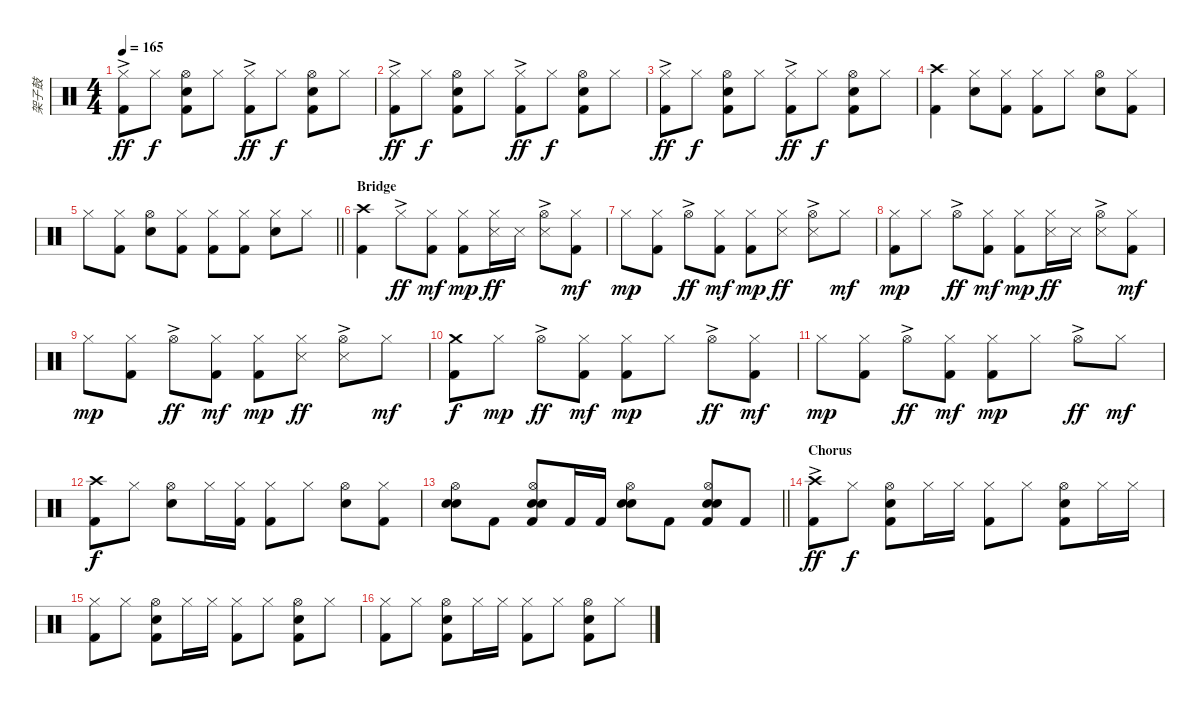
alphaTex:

\track ("架子鼓" "架子鼓") {instrument percussion}
\staff {score}
\articulation defaults
\ts (4 4)
\tempo 165
\clef neutral
\ks c
("Hi-Hat (closed)"{ac} "Kick (hit) 2").8{dy ff} "Hi-Hat (closed)".8{dy f} ("Hi-Hat (open)" "Electric Snare (hit)" "Kick (hit) 2").8 "Hi-Hat (closed)".8 ("Hi-Hat (closed)"{ac} "Kick (hit) 2").8{dy ff} "Hi-Hat (closed)".8{dy f} ("Hi-Hat (open)" "Electric Snare (hit)" "Kick (hit) 2").8 "Hi-Hat (closed)".8 |
("Hi-Hat (closed)"{ac} "Kick (hit) 2").8{dy ff} "Hi-Hat (closed)".8{dy f} ("Hi-Hat (open)" "Electric Snare (hit)" "Kick (hit) 2").8 "Hi-Hat (closed)".8 ("Hi-Hat (closed)"{ac} "Kick (hit) 2").8{dy ff} "Hi-Hat (closed)".8{dy f} ("Hi-Hat (open)" "Electric Snare (hit)" "Kick (hit) 2").8 "Hi-Hat (closed)".8 |
("Hi-Hat (closed)"{ac} "Kick (hit) 2").8{dy ff} "Hi-Hat (closed)".8{dy f} ("Hi-Hat (open)" "Electric Snare (hit)" "Kick (hit) 2").8 "Hi-Hat (closed)".8 ("Hi-Hat (closed)"{ac} "Kick (hit) 2").8{dy ff} "Hi-Hat (closed)".8{dy f} ("Hi-Hat (open)" "Electric Snare (hit)" "Kick (hit) 2").8 "Hi-Hat (closed)".8 |
("Crash high (hit)" "Kick (hit) 2").4 ("Hi-Hat (closed)" "Electric Snare (hit)").8 ("Hi-Hat (closed)" "Kick (hit) 2").8 ("Hi-Hat (closed)" "Kick (hit) 2").8 "Hi-Hat (closed)".8 ("Hi-Hat (open)" "Electric Snare (hit)").8 ("Hi-Hat (closed)" "Kick (hit) 2").8 |
\barLineRight lightlight "Hi-Hat (closed)".8
("Hi-Hat (closed)" "Kick (hit) 2").8 ("Hi-Hat (open)" "Electric Snare (hit)").8 ("Hi-Hat (closed)" "Kick (hit) 2").8 ("Hi-Hat (closed)" "Kick (hit) 2").8 ("Hi-Hat (closed)" "Kick (hit) 2").8 ("Hi-Hat (closed)" "Electric Snare (hit)").8 "Hi-Hat (closed)".8 |
\section ("" "Bridge")
("Crash high (hit)" "Kick (hit) 2").4 "Hi-Hat (closed)"{ac}.8{dy ff} ("Hi-Hat (closed)" "Kick (hit) 2").8{dy mf} ("Hi-Hat (closed)" "Kick (hit) 2").8{dy mp} ("Hi-Hat (closed)" "Metronome (hit)").16{dy ff} "Metronome (hit)".16 ("Hi-Hat (open)"{ac} "Metronome (hit)").8 ("Hi-Hat (closed)" "Kick (hit) 2").8{dy mf} |
"Hi-Hat (closed)".8{dy mp} ("Hi-Hat (closed)" "Kick (hit) 2").8 "Hi-Hat (open)"{ac}.8{dy ff} ("Hi-Hat (closed)" "Kick (hit) 2").8{dy mf} ("Hi-Hat (closed)" "Kick (hit) 2").8{dy mp} ("Hi-Hat (closed)" "Metronome (hit)").8{dy ff} ("Hi-Hat (open)"{ac} "Metronome (hit)").8 "Hi-Hat (closed)".8{dy mf} |
("Hi-Hat (closed)" "Kick (hit) 2").8{dy mp} "Hi-Hat (closed)".8 "Hi-Hat (open)"{ac}.8{dy ff} ("Hi-Hat (closed)" "Kick (hit) 2").8{dy mf} ("Hi-Hat (closed)" "Kick (hit) 2").8{dy mp} ("Hi-Hat (closed)" "Metronome (hit)").16{dy ff} "Metronome (hit)".16 ("Hi-Hat (open)"{ac} "Metronome (hit)").8 ("Hi-Hat (closed)" "Kick (hit) 2").8{dy mf} |
"Hi-Hat (closed)".8{dy mp} ("Hi-Hat (closed)" "Kick (hit) 2").8 "Hi-Hat (open)"{ac}.8{dy ff} ("Hi-Hat (closed)" "Kick (hit) 2").8{dy mf} ("Hi-Hat (closed)" "Kick (hit) 2").8{dy mp} ("Hi-Hat (closed)" "Metronome (hit)").8{dy ff} ("Hi-Hat (open)"{ac} "Metronome (hit)").8 "Hi-Hat (closed)".8{dy mf} |
("Crash medium (hit)" "Kick (hit) 2").8{dy f} "Hi-Hat (closed)".8{dy mp} "Hi-Hat (open)"{ac}.8{dy ff} ("Hi-Hat (closed)" "Kick (hit) 2").8{dy mf} ("Hi-Hat (closed)" "Kick (hit) 2").8{dy mp} "Hi-Hat (closed)".8 "Hi-Hat (open)"{ac}.8{dy ff} ("Hi-Hat (closed)" "Kick (hit) 2").8{dy mf} |
"Hi-Hat (closed)".8{dy mp} ("Hi-Hat (closed)" "Kick (hit) 2").8 "Hi-Hat (open)"{ac}.8{dy ff} ("Hi-Hat (closed)" "Kick (hit) 2").8{dy mf} ("Hi-Hat (closed)" "Kick (hit) 2").8{dy mp} "Hi-Hat (closed)".8 "Hi-Hat (open)"{ac}.8{dy ff} "Hi-Hat (closed)".8{dy mf} |
("Crash high (hit)" "Kick (hit) 2").8{dy f} "Hi-Hat (closed)".8 ("Hi-Hat (open)" "Electric Snare (hit)").8 "Hi-Hat (closed)".16 ("Hi-Hat (closed)" "Kick (hit) 2").16 ("Hi-Hat (closed)" "Kick (hit) 2").8 "Hi-Hat (closed)".8 ("Hi-Hat (open)" "Electric Snare (hit)").8 ("Hi-Hat (closed)" "Kick (hit) 2").8 |
\barLineRight lightlight
("Hi-Hat (open)" "Electric Snare (hit)" "Hand Clap (hit)").8 "Kick (hit) 2".8 ("Hi-Hat (open)" "Electric Snare (hit)" "Hand Clap (hit)" "Kick (hit) 2").8 "Kick (hit) 2".16 "Kick (hit) 2".16 ("Hi-Hat (open)" "Electric Snare (hit)" "Hand Clap (hit)").8 "Kick (hit) 2".8 ("Hi-Hat (open)" "Electric Snare (hit)" "Hand Clap (hit)" "Kick (hit) 2").8 "Kick (hit) 2".8 |
\section ("" "Chorus")
("Crash high (hit)"{ac} "Kick (hit) 2").8{dy ff} "Hi-Hat (closed)".8{dy f} ("Hi-Hat (open)" "Electric Snare (hit)" "Kick (hit) 2").8 "Hi-Hat (closed)".16 "Hi-Hat (closed)".16 ("Hi-Hat (closed)" "Kick (hit) 2").8 "Hi-Hat (closed)".8 ("Hi-Hat (open)" "Electric Snare (hit)" "Kick (hit) 2").8 "Hi-Hat (closed)".16 "Hi-Hat (closed)".16 |
("Hi-Hat (closed)" "Kick (hit) 2").8 "Hi-Hat (closed)".8 ("Hi-Hat (open)" "Electric Snare (hit)" "Kick (hit) 2").8 "Hi-Hat (closed)".16 "Hi-Hat (closed)".16 ("Hi-Hat (closed)" "Kick (hit) 2").8 "Hi-Hat (closed)".8 ("Hi-Hat (open)" "Electric Snare (hit)" "Kick (hit) 2").8 "Hi-Hat (closed)".8 |
("Hi-Hat (closed)" "Kick (hit) 2").8 "Hi-Hat (closed)".8 ("Hi-Hat (open)" "Electric Snare (hit)" "Kick (hit) 2").8 "Hi-Hat (closed)".16 "Hi-Hat (closed)".16 ("Hi-Hat (closed)" "Kick (hit) 2").8 "Hi-Hat (closed)".8 ("Hi-Hat (open)" "Electric Snare (hit)" "Kick (hit) 2").8 "Hi-Hat (closed)".8
